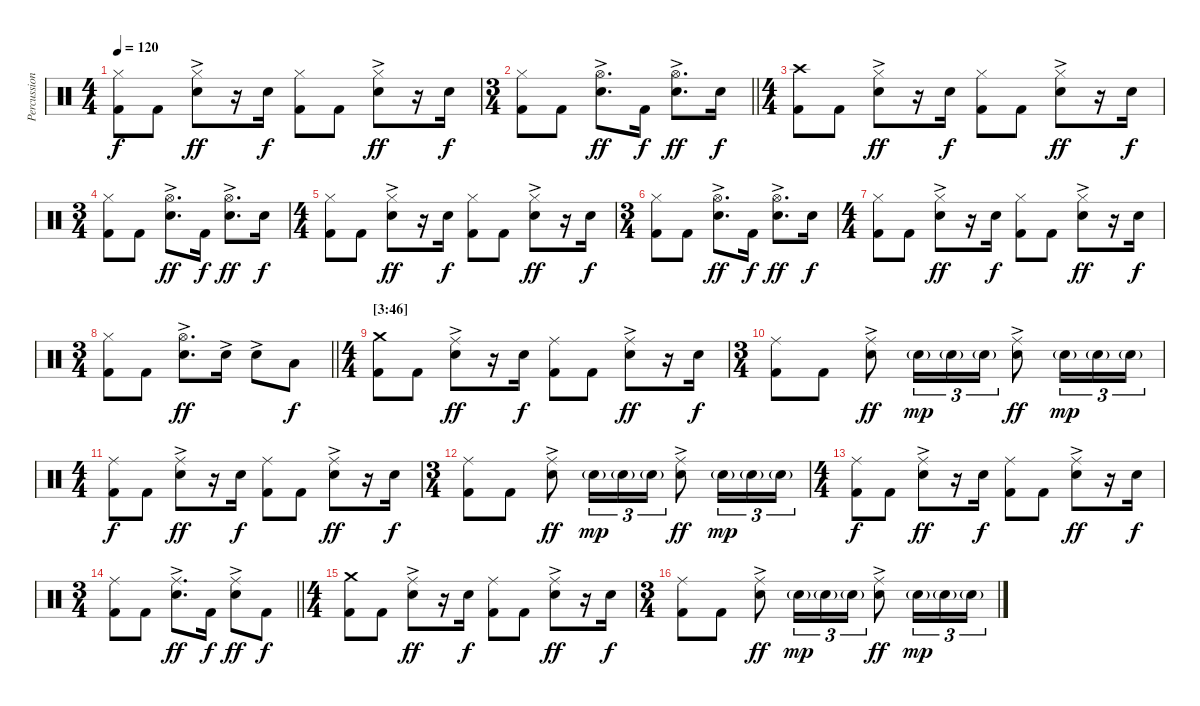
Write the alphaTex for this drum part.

\track ("Percussion" "Percussion") {instrument percussion}
\staff {score}
\articulation defaults
\ts (4 4)
\tempo 120
\clef neutral
\ks c
("Hi-Hat (closed)" "Kick (hit) 2").8{dy f} "Kick (hit) 2".8 ("Hi-Hat (closed)" "Electric Snare (hit)"{ac}).8{dy ff} r.16 "Electric Snare (hit)".16{dy f} ("Hi-Hat (closed)" "Kick (hit) 2").8 "Kick (hit) 2".8 ("Hi-Hat (closed)" "Electric Snare (hit)"{ac}).8{dy ff} r.16 "Electric Snare (hit)".16{dy f} |
\ts (3 4)
\barLineRight lightlight
("Hi-Hat (closed)" "Kick (hit) 2").8 "Kick (hit) 2".8 ("Hi-Hat (open)" "Electric Snare (hit)"{ac}).8{d dy ff} "Kick (hit) 2".16{dy f} ("Hi-Hat (open)" "Electric Snare (hit)"{ac}).8{d dy ff} "Electric Snare (hit)".16{dy f} |
\ts (4 4)
("Crash high (hit)" "Kick (hit) 2").8 "Kick (hit) 2".8 ("Hi-Hat (closed)" "Electric Snare (hit)"{ac}).8{dy ff} r.16 "Electric Snare (hit)".16{dy f} ("Hi-Hat (closed)" "Kick (hit) 2").8 "Kick (hit) 2".8 ("Hi-Hat (closed)" "Electric Snare (hit)"{ac}).8{dy ff} r.16 "Electric Snare (hit)".16{dy f} |
\ts (3 4)
("Hi-Hat (closed)" "Kick (hit) 2").8 "Kick (hit) 2".8 ("Hi-Hat (open)" "Electric Snare (hit)"{ac}).8{d dy ff} "Kick (hit) 2".16{dy f} ("Hi-Hat (open)" "Electric Snare (hit)"{ac}).8{d dy ff} "Electric Snare (hit)".16{dy f} |
\ts (4 4)
("Hi-Hat (closed)" "Kick (hit) 2").8 "Kick (hit) 2".8 ("Hi-Hat (closed)" "Electric Snare (hit)"{ac}).8{dy ff} r.16 "Electric Snare (hit)".16{dy f} ("Hi-Hat (closed)" "Kick (hit) 2").8 "Kick (hit) 2".8 ("Hi-Hat (closed)" "Electric Snare (hit)"{ac}).8{dy ff} r.16 "Electric Snare (hit)".16{dy f} |
\ts (3 4)
("Hi-Hat (closed)" "Kick (hit) 2").8 "Kick (hit) 2".8 ("Hi-Hat (open)" "Electric Snare (hit)"{ac}).8{d dy ff} "Kick (hit) 2".16{dy f} ("Hi-Hat (open)" "Electric Snare (hit)"{ac}).8{d dy ff} "Electric Snare (hit)".16{dy f} |
\ts (4 4)
("Hi-Hat (closed)" "Kick (hit) 2").8 "Kick (hit) 2".8 ("Hi-Hat (closed)" "Electric Snare (hit)"{ac}).8{dy ff} r.16 "Electric Snare (hit)".16{dy f} ("Hi-Hat (closed)" "Kick (hit) 2").8 "Kick (hit) 2".8 ("Hi-Hat (closed)" "Electric Snare (hit)"{ac}).8{dy ff} r.16 "Electric Snare (hit)".16{dy f} |
\ts (3 4)
\barLineRight lightlight
("Hi-Hat (closed)" "Kick (hit) 2").8 "Kick (hit) 2".8 ("Hi-Hat (open)" "Electric Snare (hit)"{ac}).8{d dy ff} "Electric Snare (hit)"{ac}.16 "Electric Snare (hit)"{ac}.8 "Low Tom (hit)".8{dy f} |
\ts (4 4)
\section ("" "[3:46]")
("Crash medium (hit)" "Kick (hit) 2").8 "Kick (hit) 2".8 ("Ride (middle)" "Electric Snare (hit)"{ac}).8{dy ff} r.16 "Electric Snare (hit)".16{dy f} ("Ride (middle)" "Kick (hit) 2").8 "Kick (hit) 2".8 ("Ride (middle)" "Electric Snare (hit)"{ac}).8{dy ff} r.16 "Electric Snare (hit)".16{dy f} |
\ts (3 4)
("Ride (middle)" "Kick (hit) 2").8 "Kick (hit) 2".8 ("Ride (middle)" "Electric Snare (hit)"{ac}).8{dy ff} "Electric Snare (hit)"{g}.16{tu (3 2) dy mp} "Electric Snare (hit)"{g}.16{tu (3 2)} "Electric Snare (hit)"{g}.16{tu (3 2)} ("Ride (middle)" "Electric Snare (hit)"{ac}).8{dy ff} "Electric Snare (hit)"{g}.16{tu (3 2) dy mp} "Electric Snare (hit)"{g}.16{tu (3 2)} "Electric Snare (hit)"{g}.16{tu (3 2)} |
\ts (4 4)
("Ride (middle)" "Kick (hit) 2").8{dy f} "Kick (hit) 2".8 ("Ride (middle)" "Electric Snare (hit)"{ac}).8{dy ff} r.16 "Electric Snare (hit)".16{dy f} ("Ride (middle)" "Kick (hit) 2").8 "Kick (hit) 2".8 ("Ride (middle)" "Electric Snare (hit)"{ac}).8{dy ff} r.16 "Electric Snare (hit)".16{dy f} |
\ts (3 4)
("Ride (middle)" "Kick (hit) 2").8 "Kick (hit) 2".8 ("Ride (middle)" "Electric Snare (hit)"{ac}).8{dy ff} "Electric Snare (hit)"{g}.16{tu (3 2) dy mp} "Electric Snare (hit)"{g}.16{tu (3 2)} "Electric Snare (hit)"{g}.16{tu (3 2)} ("Ride (middle)" "Electric Snare (hit)"{ac}).8{dy ff} "Electric Snare (hit)"{g}.16{tu (3 2) dy mp} "Electric Snare (hit)"{g}.16{tu (3 2)} "Electric Snare (hit)"{g}.16{tu (3 2)} |
\ts (4 4)
("Ride (middle)" "Kick (hit) 2").8{dy f} "Kick (hit) 2".8 ("Ride (middle)" "Electric Snare (hit)"{ac}).8{dy ff} r.16 "Electric Snare (hit)".16{dy f} ("Ride (middle)" "Kick (hit) 2").8 "Kick (hit) 2".8 ("Ride (middle)" "Electric Snare (hit)"{ac}).8{dy ff} r.16 "Electric Snare (hit)".16{dy f} |
\ts (3 4)
\barLineRight lightlight
("Ride (middle)" "Kick (hit) 2").8 "Kick (hit) 2".8 ("Ride (middle)" "Electric Snare (hit)"{ac}).8{d dy ff} "Kick (hit) 2".16{dy f} ("Ride (middle)" "Electric Snare (hit)"{ac}).8{dy ff} "Kick (hit) 2".8{dy f} |
\ts (4 4)
("Crash medium (hit)" "Kick (hit) 2").8 "Kick (hit) 2".8 ("Ride (middle)" "Electric Snare (hit)"{ac}).8{dy ff} r.16 "Electric Snare (hit)".16{dy f} ("Ride (middle)" "Kick (hit) 2").8 "Kick (hit) 2".8 ("Ride (middle)" "Electric Snare (hit)"{ac}).8{dy ff} r.16 "Electric Snare (hit)".16{dy f} |
\ts (3 4)
("Ride (middle)" "Kick (hit) 2").8 "Kick (hit) 2".8 ("Ride (middle)" "Electric Snare (hit)"{ac}).8{dy ff} "Electric Snare (hit)"{g}.16{tu (3 2) dy mp} "Electric Snare (hit)"{g}.16{tu (3 2)} "Electric Snare (hit)"{g}.16{tu (3 2)} ("Ride (middle)" "Electric Snare (hit)"{ac}).8{dy ff} "Electric Snare (hit)"{g}.16{tu (3 2) dy mp} "Electric Snare (hit)"{g}.16{tu (3 2)} "Electric Snare (hit)"{g}.16{tu (3 2)}
